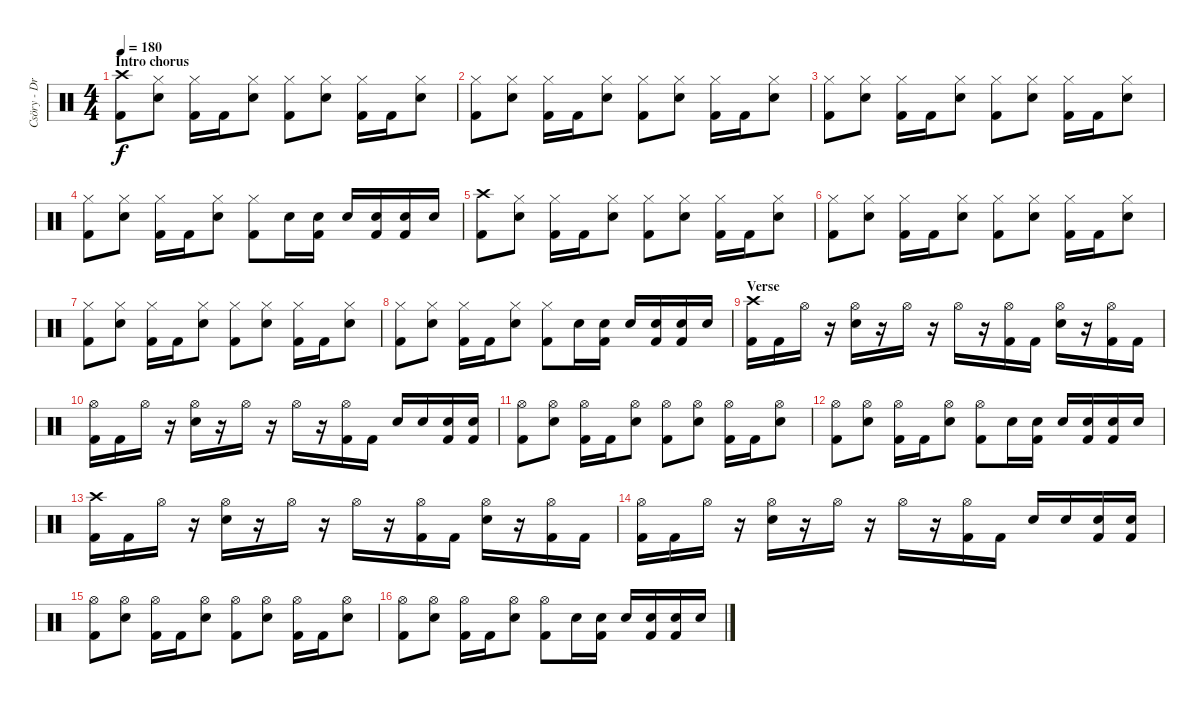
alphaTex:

\track ("Csöry - DrumZ" "Csöry - Dr") {instrument percussion}
\staff {score}
\articulation defaults
\ts (4 4)
\section ("" "Intro chorus")
\tempo 180
\clef neutral
\ks c
("Crash high (hit)" "Kick (hit) 2").8{dy f} ("Hi-Hat (closed)" "Snare (hit) 2").8 ("Hi-Hat (closed)" "Kick (hit) 2").16 "Kick (hit) 2".16 ("Hi-Hat (closed)" "Snare (hit) 2").8 ("Hi-Hat (closed)" "Kick (hit) 2").8 ("Hi-Hat (closed)" "Snare (hit) 2").8 ("Hi-Hat (closed)" "Kick (hit) 2").16 "Kick (hit) 2".16 ("Hi-Hat (closed)" "Snare (hit) 2").8 |
("Hi-Hat (closed)" "Kick (hit) 2").8 ("Hi-Hat (closed)" "Snare (hit) 2").8 ("Hi-Hat (closed)" "Kick (hit) 2").16 "Kick (hit) 2".16 ("Hi-Hat (closed)" "Snare (hit) 2").8 ("Hi-Hat (closed)" "Kick (hit) 2").8 ("Hi-Hat (closed)" "Snare (hit) 2").8 ("Hi-Hat (closed)" "Kick (hit) 2").16 "Kick (hit) 2".16 ("Hi-Hat (closed)" "Snare (hit) 2").8 |
("Hi-Hat (closed)" "Kick (hit) 2").8 ("Hi-Hat (closed)" "Snare (hit) 2").8 ("Hi-Hat (closed)" "Kick (hit) 2").16 "Kick (hit) 2".16 ("Hi-Hat (closed)" "Snare (hit) 2").8 ("Hi-Hat (closed)" "Kick (hit) 2").8 ("Hi-Hat (closed)" "Snare (hit) 2").8 ("Hi-Hat (closed)" "Kick (hit) 2").16 "Kick (hit) 2".16 ("Hi-Hat (closed)" "Snare (hit) 2").8 |
("Hi-Hat (closed)" "Kick (hit) 2").8 ("Hi-Hat (closed)" "Snare (hit) 2").8 ("Hi-Hat (closed)" "Kick (hit) 2").16 "Kick (hit) 2".16 ("Hi-Hat (closed)" "Snare (hit) 2").8 ("Hi-Hat (closed)" "Kick (hit) 2").8 "Snare (hit) 2".16 ("Snare (hit) 2" "Kick (hit) 2").16 "Snare (hit) 2".16 ("Snare (hit) 2" "Kick (hit) 2").16 ("Snare (hit) 2" "Kick (hit) 2").16 "Snare (hit) 2".16 |
("Crash high (hit)" "Kick (hit) 2").8 ("Hi-Hat (closed)" "Snare (hit) 2").8 ("Hi-Hat (closed)" "Kick (hit) 2").16 "Kick (hit) 2".16 ("Hi-Hat (closed)" "Snare (hit) 2").8 ("Hi-Hat (closed)" "Kick (hit) 2").8 ("Hi-Hat (closed)" "Snare (hit) 2").8 ("Hi-Hat (closed)" "Kick (hit) 2").16 "Kick (hit) 2".16 ("Hi-Hat (closed)" "Snare (hit) 2").8 |
("Hi-Hat (closed)" "Kick (hit) 2").8 ("Hi-Hat (closed)" "Snare (hit) 2").8 ("Hi-Hat (closed)" "Kick (hit) 2").16 "Kick (hit) 2".16 ("Hi-Hat (closed)" "Snare (hit) 2").8 ("Hi-Hat (closed)" "Kick (hit) 2").8 ("Hi-Hat (closed)" "Snare (hit) 2").8 ("Hi-Hat (closed)" "Kick (hit) 2").16 "Kick (hit) 2".16 ("Hi-Hat (closed)" "Snare (hit) 2").8 |
("Hi-Hat (closed)" "Kick (hit) 2").8 ("Hi-Hat (closed)" "Snare (hit) 2").8 ("Hi-Hat (closed)" "Kick (hit) 2").16 "Kick (hit) 2".16 ("Hi-Hat (closed)" "Snare (hit) 2").8 ("Hi-Hat (closed)" "Kick (hit) 2").8 ("Hi-Hat (closed)" "Snare (hit) 2").8 ("Hi-Hat (closed)" "Kick (hit) 2").16 "Kick (hit) 2".16 ("Hi-Hat (closed)" "Snare (hit) 2").8 |
("Hi-Hat (closed)" "Kick (hit) 2").8 ("Hi-Hat (closed)" "Snare (hit) 2").8 ("Hi-Hat (closed)" "Kick (hit) 2").16 "Kick (hit) 2".16 ("Hi-Hat (closed)" "Snare (hit) 2").8 ("Hi-Hat (closed)" "Kick (hit) 2").8 "Snare (hit) 2".16 ("Snare (hit) 2" "Kick (hit) 2").16 "Snare (hit) 2".16 ("Snare (hit) 2" "Kick (hit) 2").16 ("Snare (hit) 2" "Kick (hit) 2").16 "Snare (hit) 2".16 |
\section ("" "Verse")
("Crash high (hit)" "Kick (hit) 2").16 "Kick (hit) 2".16 "Hi-Hat (open)".16 r.16 ("Hi-Hat (open)" "Snare (hit) 2").16 r.16 "Hi-Hat (open)".16 r.16 "Hi-Hat (open)".16 r.16 ("Hi-Hat (open)" "Kick (hit) 2").16 "Kick (hit) 2".16 ("Hi-Hat (open)" "Snare (hit) 2").16 r.16 ("Hi-Hat (open)" "Kick (hit) 2").16 "Kick (hit) 2".16 |
("Hi-Hat (open)" "Kick (hit) 2").16 "Kick (hit) 2".16 "Hi-Hat (open)".16 r.16 ("Hi-Hat (open)" "Snare (hit) 2").16 r.16 "Hi-Hat (open)".16 r.16 "Hi-Hat (open)".16 r.16 ("Hi-Hat (open)" "Kick (hit) 2").16 "Kick (hit) 2".16 "Snare (hit) 2".16 "Snare (hit) 2".16 ("Snare (hit) 2" "Kick (hit) 2").16 ("Snare (hit) 2" "Kick (hit) 2").16 |
("Hi-Hat (open)" "Kick (hit) 2").8 ("Hi-Hat (open)" "Snare (hit) 2").8 ("Hi-Hat (open)" "Kick (hit) 2").16 "Kick (hit) 2".16 ("Hi-Hat (open)" "Snare (hit) 2").8 ("Hi-Hat (open)" "Kick (hit) 2").8 ("Hi-Hat (open)" "Snare (hit) 2").8 ("Hi-Hat (open)" "Kick (hit) 2").16 "Kick (hit) 2".16 ("Hi-Hat (open)" "Snare (hit) 2").8 |
("Hi-Hat (open)" "Kick (hit) 2").8 ("Hi-Hat (open)" "Snare (hit) 2").8 ("Hi-Hat (open)" "Kick (hit) 2").16 "Kick (hit) 2".16 ("Hi-Hat (open)" "Snare (hit) 2").8 ("Hi-Hat (open)" "Kick (hit) 2").8 "Snare (hit) 2".16 ("Snare (hit) 2" "Kick (hit) 2").16 "Snare (hit) 2".16 ("Snare (hit) 2" "Kick (hit) 2").16 ("Snare (hit) 2" "Kick (hit) 2").16 "Snare (hit) 2".16 |
("Crash high (hit)" "Kick (hit) 2").16 "Kick (hit) 2".16 "Hi-Hat (open)".16 r.16 ("Hi-Hat (open)" "Snare (hit) 2").16 r.16 "Hi-Hat (open)".16 r.16 "Hi-Hat (open)".16 r.16 ("Hi-Hat (open)" "Kick (hit) 2").16 "Kick (hit) 2".16 ("Hi-Hat (open)" "Snare (hit) 2").16 r.16 ("Hi-Hat (open)" "Kick (hit) 2").16 "Kick (hit) 2".16 |
("Hi-Hat (open)" "Kick (hit) 2").16 "Kick (hit) 2".16 "Hi-Hat (open)".16 r.16 ("Hi-Hat (open)" "Snare (hit) 2").16 r.16 "Hi-Hat (open)".16 r.16 "Hi-Hat (open)".16 r.16 ("Hi-Hat (open)" "Kick (hit) 2").16 "Kick (hit) 2".16 "Snare (hit) 2".16 "Snare (hit) 2".16 ("Snare (hit) 2" "Kick (hit) 2").16 ("Snare (hit) 2" "Kick (hit) 2").16 |
("Hi-Hat (open)" "Kick (hit) 2").8 ("Hi-Hat (open)" "Snare (hit) 2").8 ("Hi-Hat (open)" "Kick (hit) 2").16 "Kick (hit) 2".16 ("Hi-Hat (open)" "Snare (hit) 2").8 ("Hi-Hat (open)" "Kick (hit) 2").8 ("Hi-Hat (open)" "Snare (hit) 2").8 ("Hi-Hat (open)" "Kick (hit) 2").16 "Kick (hit) 2".16 ("Hi-Hat (open)" "Snare (hit) 2").8 |
("Hi-Hat (open)" "Kick (hit) 2").8 ("Hi-Hat (open)" "Snare (hit) 2").8 ("Hi-Hat (open)" "Kick (hit) 2").16 "Kick (hit) 2".16 ("Hi-Hat (open)" "Snare (hit) 2").8 ("Hi-Hat (open)" "Kick (hit) 2").8 "Snare (hit) 2".16 ("Snare (hit) 2" "Kick (hit) 2").16 "Snare (hit) 2".16 ("Snare (hit) 2" "Kick (hit) 2").16 ("Snare (hit) 2" "Kick (hit) 2").16 "Snare (hit) 2".16
